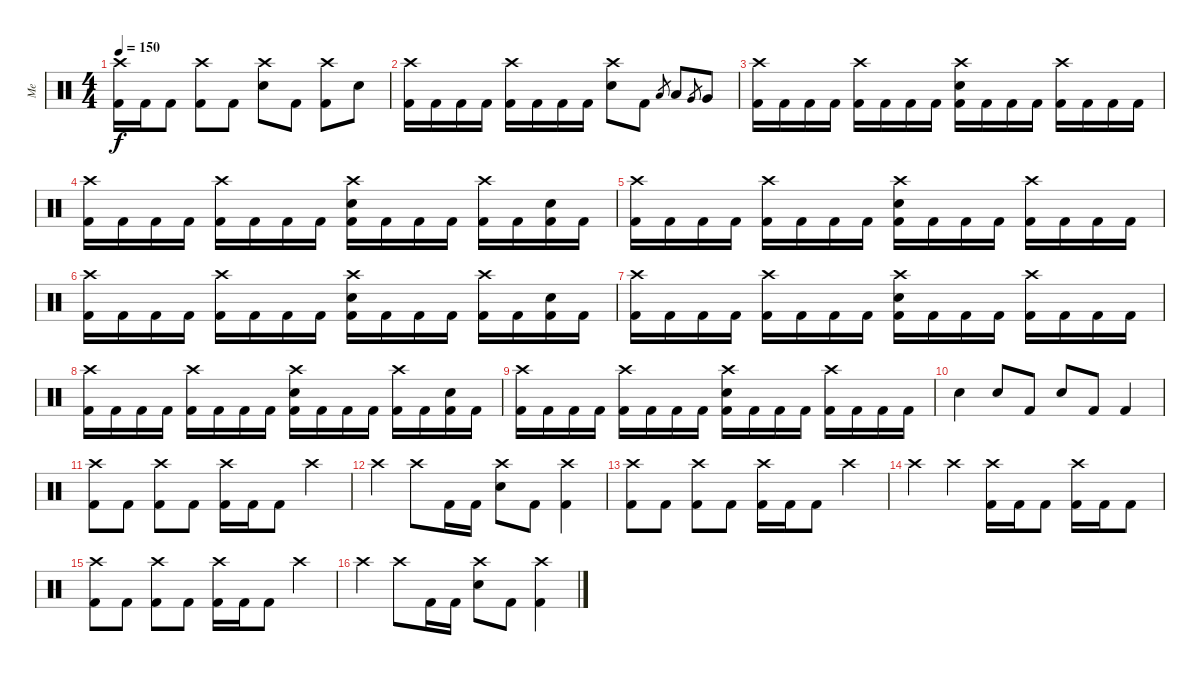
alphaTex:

\track ("Me" "Me") {instrument percussion}
\staff {score}
\articulation defaults
\ts (4 4)
\tempo 150
\clef neutral
\ks c
("Crash high (hit)" "Kick (hit) 2").16{dy f} "Kick (hit) 2".16 "Kick (hit) 2".8 ("Crash high (hit)" "Kick (hit) 2").8 "Kick (hit) 2".8 ("Crash high (hit)" "Snare (hit) 2").8 "Kick (hit) 2".8 ("Crash high (hit)" "Kick (hit) 2").8 "Snare (hit) 2".8 |
("Crash high (hit)" "Kick (hit) 2").16 "Kick (hit) 2".16 "Kick (hit) 2".16 "Kick (hit) 2".16 ("Crash high (hit)" "Kick (hit) 2").16 "Kick (hit) 2".16 "Kick (hit) 2".16 "Kick (hit) 2".16 ("Crash high (hit)" "Snare (hit) 2").8 "Kick (hit) 2".8 "Low Tom (hit)".8{gr} "Low Tom (hit)".8 "Very Low Tom (hit)".8{gr} "Very Low Tom (hit)".8 |
("Crash high (hit)" "Kick (hit) 2").16 "Kick (hit) 2".16 "Kick (hit) 2".16 "Kick (hit) 2".16 ("Crash high (hit)" "Kick (hit) 2").16 "Kick (hit) 2".16 "Kick (hit) 2".16 "Kick (hit) 2".16 ("Crash high (hit)" "Snare (hit) 2" "Kick (hit) 2").16 "Kick (hit) 2".16 "Kick (hit) 2".16 "Kick (hit) 2".16 ("Crash high (hit)" "Kick (hit) 2").16 "Kick (hit) 2".16 "Kick (hit) 2".16 "Kick (hit) 2".16 |
("Crash high (hit)" "Kick (hit) 2").16 "Kick (hit) 2".16 "Kick (hit) 2".16 "Kick (hit) 2".16 ("Crash high (hit)" "Kick (hit) 2").16 "Kick (hit) 2".16 "Kick (hit) 2".16 "Kick (hit) 2".16 ("Crash high (hit)" "Snare (hit) 2" "Kick (hit) 2").16 "Kick (hit) 2".16 "Kick (hit) 2".16 "Kick (hit) 2".16 ("Crash high (hit)" "Kick (hit) 2").16 "Kick (hit) 2".16 ("Snare (hit) 2" "Kick (hit) 2").16 "Kick (hit) 2".16 |
("Crash high (hit)" "Kick (hit) 2").16 "Kick (hit) 2".16 "Kick (hit) 2".16 "Kick (hit) 2".16 ("Crash high (hit)" "Kick (hit) 2").16 "Kick (hit) 2".16 "Kick (hit) 2".16 "Kick (hit) 2".16 ("Crash high (hit)" "Snare (hit) 2" "Kick (hit) 2").16 "Kick (hit) 2".16 "Kick (hit) 2".16 "Kick (hit) 2".16 ("Crash high (hit)" "Kick (hit) 2").16 "Kick (hit) 2".16 "Kick (hit) 2".16 "Kick (hit) 2".16 |
("Crash high (hit)" "Kick (hit) 2").16 "Kick (hit) 2".16 "Kick (hit) 2".16 "Kick (hit) 2".16 ("Crash high (hit)" "Kick (hit) 2").16 "Kick (hit) 2".16 "Kick (hit) 2".16 "Kick (hit) 2".16 ("Crash high (hit)" "Snare (hit) 2" "Kick (hit) 2").16 "Kick (hit) 2".16 "Kick (hit) 2".16 "Kick (hit) 2".16 ("Crash high (hit)" "Kick (hit) 2").16 "Kick (hit) 2".16 ("Snare (hit) 2" "Kick (hit) 2").16 "Kick (hit) 2".16 |
("Crash high (hit)" "Kick (hit) 2").16 "Kick (hit) 2".16 "Kick (hit) 2".16 "Kick (hit) 2".16 ("Crash high (hit)" "Kick (hit) 2").16 "Kick (hit) 2".16 "Kick (hit) 2".16 "Kick (hit) 2".16 ("Crash high (hit)" "Snare (hit) 2" "Kick (hit) 2").16 "Kick (hit) 2".16 "Kick (hit) 2".16 "Kick (hit) 2".16 ("Crash high (hit)" "Kick (hit) 2").16 "Kick (hit) 2".16 "Kick (hit) 2".16 "Kick (hit) 2".16 |
("Crash high (hit)" "Kick (hit) 2").16 "Kick (hit) 2".16 "Kick (hit) 2".16 "Kick (hit) 2".16 ("Crash high (hit)" "Kick (hit) 2").16 "Kick (hit) 2".16 "Kick (hit) 2".16 "Kick (hit) 2".16 ("Crash high (hit)" "Snare (hit) 2" "Kick (hit) 2").16 "Kick (hit) 2".16 "Kick (hit) 2".16 "Kick (hit) 2".16 ("Crash high (hit)" "Kick (hit) 2").16 "Kick (hit) 2".16 ("Snare (hit) 2" "Kick (hit) 2").16 "Kick (hit) 2".16 |
("Crash high (hit)" "Kick (hit) 2").16 "Kick (hit) 2".16 "Kick (hit) 2".16 "Kick (hit) 2".16 ("Crash high (hit)" "Kick (hit) 2").16 "Kick (hit) 2".16 "Kick (hit) 2".16 "Kick (hit) 2".16 ("Crash high (hit)" "Snare (hit) 2" "Kick (hit) 2").16 "Kick (hit) 2".16 "Kick (hit) 2".16 "Kick (hit) 2".16 ("Crash high (hit)" "Kick (hit) 2").16 "Kick (hit) 2".16 "Kick (hit) 2".16 "Kick (hit) 2".16 |
"Snare (hit) 2".4 "Snare (hit) 2".8 "Kick (hit) 2".8 "Snare (hit) 2".8 "Kick (hit) 2".8 "Kick (hit) 2".4 |
("Crash high (hit)" "Kick (hit) 2").8 "Kick (hit) 2".8 ("Crash high (hit)" "Kick (hit) 2").8 "Kick (hit) 2".8 ("Crash high (hit)" "Kick (hit) 2").16 "Kick (hit) 2".16 "Kick (hit) 2".8 "Crash high (hit)".4 |
"Crash high (hit)".4 "Crash high (hit)".8 "Kick (hit) 2".16 "Kick (hit) 2".16 ("Crash high (hit)" "Snare (hit) 2").8 "Kick (hit) 2".8 ("Crash high (hit)" "Kick (hit) 2").4 |
("Crash high (hit)" "Kick (hit) 2").8 "Kick (hit) 2".8 ("Crash high (hit)" "Kick (hit) 2").8 "Kick (hit) 2".8 ("Crash high (hit)" "Kick (hit) 2").16 "Kick (hit) 2".16 "Kick (hit) 2".8 "Crash high (hit)".4 |
"Crash high (hit)".4 "Crash high (hit)".4 ("Crash high (hit)" "Kick (hit) 2").16 "Kick (hit) 2".16 "Kick (hit) 2".8 ("Crash high (hit)" "Kick (hit) 2").16 "Kick (hit) 2".16 "Kick (hit) 2".8 |
("Crash high (hit)" "Kick (hit) 2").8 "Kick (hit) 2".8 ("Crash high (hit)" "Kick (hit) 2").8 "Kick (hit) 2".8 ("Crash high (hit)" "Kick (hit) 2").16 "Kick (hit) 2".16 "Kick (hit) 2".8 "Crash high (hit)".4 |
"Crash high (hit)".4 "Crash high (hit)".8 "Kick (hit) 2".16 "Kick (hit) 2".16 ("Crash high (hit)" "Snare (hit) 2").8 "Kick (hit) 2".8 ("Crash high (hit)" "Kick (hit) 2").4
